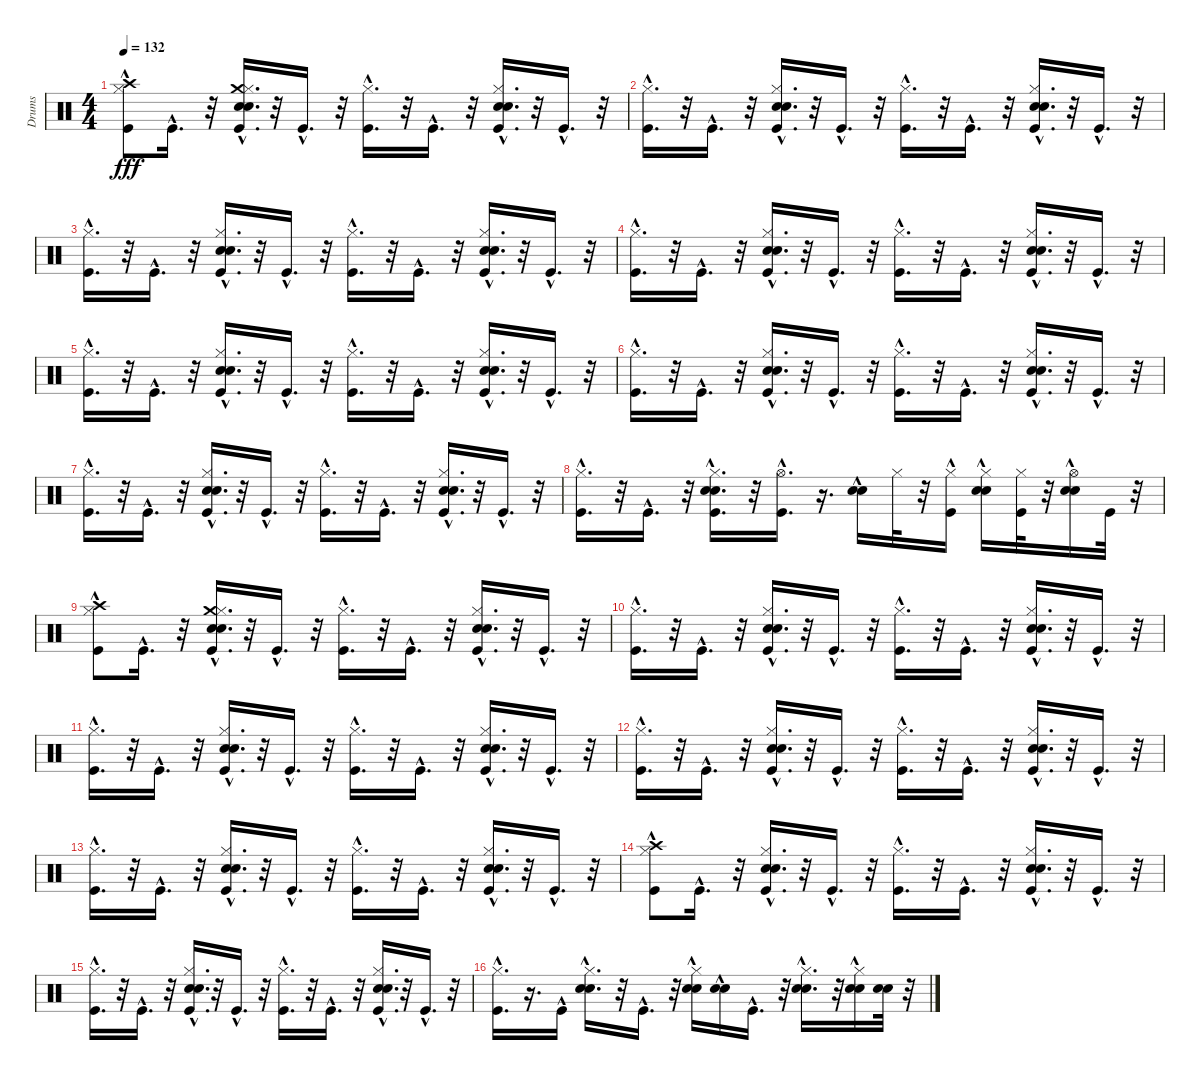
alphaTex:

\track ("Drums" "Drums") {instrument percussion}
\staff {score}
\articulation defaults
\ts (4 4)
\tempo 132
\clef neutral
\ks c
("Crash high (hit)" "Kick (hit)"{hac} "Hi-Hat (closed)"{hac}).8{dy fff} "Kick (hit)"{hac}.16{d} r.32 ("Crash medium (hit)"{hac} "Kick (hit)"{hac} "Snare (hit) 2"{hac} "Electric Snare (hit)"{hac} "Hi-Hat (closed)"{hac}).16{d} r.32 "Kick (hit)"{hac}.16{d} r.32 ("Kick (hit)"{hac} "Hi-Hat (closed)"{hac}).16{d} r.32 "Kick (hit)"{hac}.16{d} r.32 ("Kick (hit)"{hac} "Snare (hit) 2"{hac} "Electric Snare (hit)"{hac} "Hi-Hat (closed)"{hac}).16{d} r.32 "Kick (hit)"{hac}.16{d} r.32 |
("Kick (hit)"{hac} "Hi-Hat (closed)"{hac}).16{d} r.32 "Kick (hit)"{hac}.16{d} r.32 ("Kick (hit)"{hac} "Snare (hit) 2"{hac} "Electric Snare (hit)"{hac} "Hi-Hat (closed)"{hac}).16{d} r.32 "Kick (hit)"{hac}.16{d} r.32 ("Kick (hit)"{hac} "Hi-Hat (closed)"{hac}).16{d} r.32 "Kick (hit)"{hac}.16{d} r.32 ("Kick (hit)"{hac} "Snare (hit) 2"{hac} "Electric Snare (hit)"{hac} "Hi-Hat (closed)"{hac}).16{d} r.32 "Kick (hit)"{hac}.16{d} r.32 |
("Kick (hit)"{hac} "Hi-Hat (closed)"{hac}).16{d} r.32 "Kick (hit)"{hac}.16{d} r.32 ("Kick (hit)"{hac} "Snare (hit) 2"{hac} "Electric Snare (hit)"{hac} "Hi-Hat (closed)"{hac}).16{d} r.32 "Kick (hit)"{hac}.16{d} r.32 ("Kick (hit)"{hac} "Hi-Hat (closed)"{hac}).16{d} r.32 "Kick (hit)"{hac}.16{d} r.32 ("Kick (hit)"{hac} "Snare (hit) 2"{hac} "Electric Snare (hit)"{hac} "Hi-Hat (closed)"{hac}).16{d} r.32 "Kick (hit)"{hac}.16{d} r.32 |
("Kick (hit)"{hac} "Hi-Hat (closed)"{hac}).16{d} r.32 "Kick (hit)"{hac}.16{d} r.32 ("Kick (hit)"{hac} "Snare (hit) 2"{hac} "Electric Snare (hit)"{hac} "Hi-Hat (closed)"{hac}).16{d} r.32 "Kick (hit)"{hac}.16{d} r.32 ("Kick (hit)"{hac} "Hi-Hat (closed)"{hac}).16{d} r.32 "Kick (hit)"{hac}.16{d} r.32 ("Kick (hit)"{hac} "Snare (hit) 2"{hac} "Electric Snare (hit)"{hac} "Hi-Hat (closed)"{hac}).16{d} r.32 "Kick (hit)"{hac}.16{d} r.32 |
("Kick (hit)"{hac} "Hi-Hat (closed)"{hac}).16{d} r.32 "Kick (hit)"{hac}.16{d} r.32 ("Kick (hit)"{hac} "Snare (hit) 2"{hac} "Electric Snare (hit)"{hac} "Hi-Hat (closed)"{hac}).16{d} r.32 "Kick (hit)"{hac}.16{d} r.32 ("Kick (hit)"{hac} "Hi-Hat (closed)"{hac}).16{d} r.32 "Kick (hit)"{hac}.16{d} r.32 ("Kick (hit)"{hac} "Snare (hit) 2"{hac} "Electric Snare (hit)"{hac} "Hi-Hat (closed)"{hac}).16{d} r.32 "Kick (hit)"{hac}.16{d} r.32 |
("Kick (hit)"{hac} "Hi-Hat (closed)"{hac}).16{d} r.32 "Kick (hit)"{hac}.16{d} r.32 ("Kick (hit)"{hac} "Snare (hit) 2"{hac} "Electric Snare (hit)"{hac} "Hi-Hat (closed)"{hac}).16{d} r.32 "Kick (hit)"{hac}.16{d} r.32 ("Kick (hit)"{hac} "Hi-Hat (closed)"{hac}).16{d} r.32 "Kick (hit)"{hac}.16{d} r.32 ("Kick (hit)"{hac} "Snare (hit) 2"{hac} "Electric Snare (hit)"{hac} "Hi-Hat (closed)"{hac}).16{d} r.32 "Kick (hit)"{hac}.16{d} r.32 |
("Kick (hit)"{hac} "Hi-Hat (closed)"{hac}).16{d} r.32 "Kick (hit)"{hac}.16{d} r.32 ("Kick (hit)"{hac} "Snare (hit) 2"{hac} "Electric Snare (hit)"{hac} "Hi-Hat (closed)"{hac}).16{d} r.32 "Kick (hit)"{hac}.16{d} r.32 ("Kick (hit)"{hac} "Hi-Hat (closed)"{hac}).16{d} r.32 "Kick (hit)"{hac}.16{d} r.32 ("Kick (hit)"{hac} "Snare (hit) 2"{hac} "Electric Snare (hit)"{hac} "Hi-Hat (closed)"{hac}).16{d} r.32 "Kick (hit)"{hac}.16{d} r.32 |
("Kick (hit)"{hac} "Hi-Hat (closed)"{hac}).16{d} r.32 "Kick (hit)"{hac}.16{d} r.32 ("Kick (hit)"{hac} "Snare (hit) 2"{hac} "Electric Snare (hit)"{hac} "Hi-Hat (closed)"{hac}).16{d} r.32 ("Kick (hit)"{hac} "Hi-Hat (open)"{hac}).16{d} r.16{d} ("Snare (hit) 2"{hac} "Electric Snare (hit)"{hac}).16 "Hi-Hat (closed)".32 r.32 ("Kick (hit)"{hac} "Hi-Hat (closed)").16 ("Snare (hit) 2"{hac} "Electric Snare (hit)"{hac} "Hi-Hat (closed)").16 ("Hi-Hat (closed)" "Kick (hit)").32 r.32 ("Snare (hit) 2"{hac} "Hi-Hat (open)" "Electric Snare (hit)"{hac}).16 "Kick (hit)".32 r.32 |
("Crash high (hit)" "Kick (hit)"{hac} "Hi-Hat (closed)"{hac}).8 "Kick (hit)"{hac}.16{d} r.32 ("Crash medium (hit)"{hac} "Kick (hit)"{hac} "Snare (hit) 2"{hac} "Electric Snare (hit)"{hac} "Hi-Hat (closed)"{hac}).16{d} r.32 "Kick (hit)"{hac}.16{d} r.32 ("Kick (hit)"{hac} "Hi-Hat (closed)"{hac}).16{d} r.32 "Kick (hit)"{hac}.16{d} r.32 ("Kick (hit)"{hac} "Snare (hit) 2"{hac} "Electric Snare (hit)"{hac} "Hi-Hat (closed)"{hac}).16{d} r.32 "Kick (hit)"{hac}.16{d} r.32 |
("Kick (hit)"{hac} "Hi-Hat (closed)"{hac}).16{d} r.32 "Kick (hit)"{hac}.16{d} r.32 ("Kick (hit)"{hac} "Snare (hit) 2"{hac} "Electric Snare (hit)"{hac} "Hi-Hat (closed)"{hac}).16{d} r.32 "Kick (hit)"{hac}.16{d} r.32 ("Kick (hit)"{hac} "Hi-Hat (closed)"{hac}).16{d} r.32 "Kick (hit)"{hac}.16{d} r.32 ("Kick (hit)"{hac} "Snare (hit) 2"{hac} "Electric Snare (hit)"{hac} "Hi-Hat (closed)"{hac}).16{d} r.32 "Kick (hit)"{hac}.16{d} r.32 |
("Kick (hit)"{hac} "Hi-Hat (closed)"{hac}).16{d} r.32 "Kick (hit)"{hac}.16{d} r.32 ("Kick (hit)"{hac} "Snare (hit) 2"{hac} "Electric Snare (hit)"{hac} "Hi-Hat (closed)"{hac}).16{d} r.32 "Kick (hit)"{hac}.16{d} r.32 ("Kick (hit)"{hac} "Hi-Hat (closed)"{hac}).16{d} r.32 "Kick (hit)"{hac}.16{d} r.32 ("Kick (hit)"{hac} "Snare (hit) 2"{hac} "Electric Snare (hit)"{hac} "Hi-Hat (closed)"{hac}).16{d} r.32 "Kick (hit)"{hac}.16{d} r.32 |
("Kick (hit)"{hac} "Hi-Hat (closed)"{hac}).16{d} r.32 "Kick (hit)"{hac}.16{d} r.32 ("Kick (hit)"{hac} "Snare (hit) 2"{hac} "Electric Snare (hit)"{hac} "Hi-Hat (closed)"{hac}).16{d} r.32 "Kick (hit)"{hac}.16{d} r.32 ("Kick (hit)"{hac} "Hi-Hat (closed)"{hac}).16{d} r.32 "Kick (hit)"{hac}.16{d} r.32 ("Kick (hit)"{hac} "Snare (hit) 2"{hac} "Electric Snare (hit)"{hac} "Hi-Hat (closed)"{hac}).16{d} r.32 "Kick (hit)"{hac}.16{d} r.32 |
("Kick (hit)"{hac} "Hi-Hat (closed)"{hac}).16{d} r.32 "Kick (hit)"{hac}.16{d} r.32 ("Kick (hit)"{hac} "Snare (hit) 2"{hac} "Electric Snare (hit)"{hac} "Hi-Hat (closed)"{hac}).16{d} r.32 "Kick (hit)"{hac}.16{d} r.32 ("Kick (hit)"{hac} "Hi-Hat (closed)"{hac}).16{d} r.32 "Kick (hit)"{hac}.16{d} r.32 ("Kick (hit)"{hac} "Snare (hit) 2"{hac} "Electric Snare (hit)"{hac} "Hi-Hat (closed)"{hac}).16{d} r.32 "Kick (hit)"{hac}.16{d} r.32 |
("Kick (hit)"{hac} "Hi-Hat (closed)"{hac} "Crash high (hit)").8 "Kick (hit)"{hac}.16{d} r.32 ("Kick (hit)"{hac} "Snare (hit) 2"{hac} "Electric Snare (hit)"{hac} "Hi-Hat (closed)"{hac}).16{d} r.32 "Kick (hit)"{hac}.16{d} r.32 ("Kick (hit)"{hac} "Hi-Hat (closed)"{hac}).16{d} r.32 "Kick (hit)"{hac}.16{d} r.32 ("Kick (hit)"{hac} "Snare (hit) 2"{hac} "Electric Snare (hit)"{hac} "Hi-Hat (closed)"{hac}).16{d} r.32 "Kick (hit)"{hac}.16{d} r.32 |
("Kick (hit)"{hac} "Hi-Hat (closed)"{hac}).16{d} r.32 "Kick (hit)"{hac}.16{d} r.32 ("Kick (hit)"{hac} "Snare (hit) 2"{hac} "Electric Snare (hit)"{hac} "Hi-Hat (closed)"{hac}).16{d} r.32 "Kick (hit)"{hac}.16{d} r.32 ("Kick (hit)"{hac} "Hi-Hat (closed)"{hac}).16{d} r.32 "Kick (hit)"{hac}.16{d} r.32 ("Kick (hit)"{hac} "Snare (hit) 2"{hac} "Electric Snare (hit)"{hac} "Hi-Hat (closed)"{hac}).16{d} r.32 "Kick (hit)"{hac}.16{d} r.32 |
("Kick (hit)"{hac} "Hi-Hat (closed)"{hac}).16{d} r.16{d} "Kick (hit)"{hac}.16 ("Snare (hit) 2"{hac} "Electric Snare (hit)"{hac} "Hi-Hat (closed)"{hac}).16{d} r.32 "Kick (hit)"{hac}.16{d} r.32 ("Snare (hit) 2" "Electric Snare (hit)" "Hi-Hat (closed)"{hac}).16 ("Snare (hit) 2"{hac} "Electric Snare (hit)"{hac}).16 "Kick (hit)"{hac}.16{d} r.32 ("Snare (hit) 2"{hac} "Electric Snare (hit)"{hac} "Hi-Hat (closed)"{hac}).16{d} r.32 ("Snare (hit) 2" "Electric Snare (hit)" "Hi-Hat (closed)"{hac}).16 ("Snare (hit) 2" "Electric Snare (hit)").32 r.32
